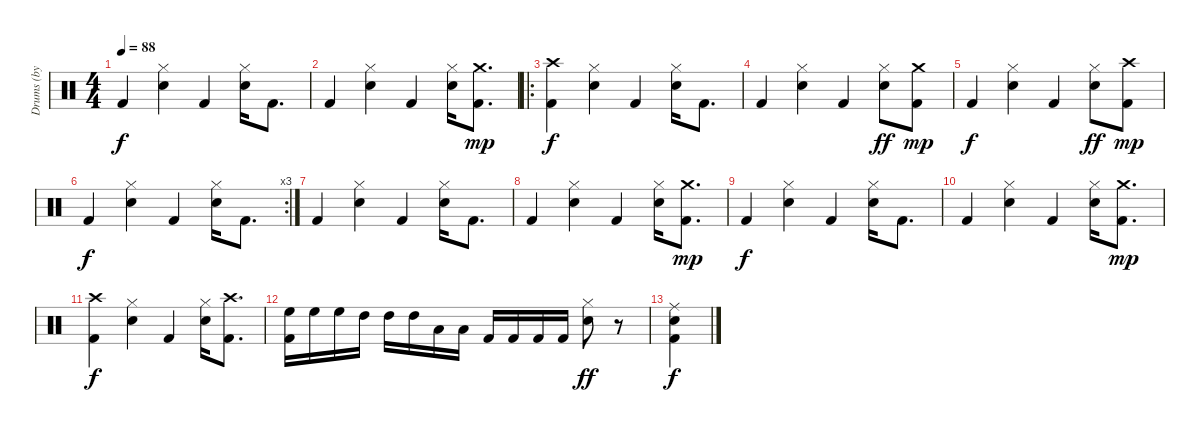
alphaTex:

\track ("Drums (by Rim)" "Drums (by ") {instrument percussion}
\staff {score}
\articulation defaults
\ts (4 4)
\tempo 88
\clef neutral
\ks c "Kick (hit) 2".4{dy f}
("Hi-Hat (closed)" "Snare (hit) 2").4 "Kick (hit) 2".4 ("Hi-Hat (closed)" "Snare (hit) 2").16 "Kick (hit) 2".8{d} |
"Kick (hit) 2".4 ("Hi-Hat (closed)" "Snare (hit) 2").4 "Kick (hit) 2".4 ("Hi-Hat (closed)" "Snare (hit) 2").16 ("Kick (hit) 2" "Crash medium (hit)").8{d dy mp} |
\ro
("Kick (hit) 2" "Crash high (hit)").4{dy f} ("Hi-Hat (closed)" "Snare (hit) 2").4 "Kick (hit) 2".4 ("Hi-Hat (closed)" "Snare (hit) 2").16 "Kick (hit) 2".8{d} |
"Kick (hit) 2".4 ("Hi-Hat (closed)" "Snare (hit) 2").4 "Kick (hit) 2".4 ("Hi-Hat (closed)" "Snare (hit) 2").8{dy ff} ("Kick (hit) 2" "Crash medium (hit)").8{dy mp} |
"Kick (hit) 2".4{dy f} ("Hi-Hat (closed)" "Snare (hit) 2").4 "Kick (hit) 2".4 ("Hi-Hat (closed)" "Snare (hit) 2").8{dy ff} ("Kick (hit) 2" "Crash high (hit)").8{dy mp} |
\rc 3 "Kick (hit) 2".4{dy f}
("Hi-Hat (closed)" "Snare (hit) 2").4 "Kick (hit) 2".4 ("Hi-Hat (closed)" "Snare (hit) 2").16 "Kick (hit) 2".8{d} |
"Kick (hit) 2".4 ("Hi-Hat (closed)" "Snare (hit) 2").4 "Kick (hit) 2".4 ("Hi-Hat (closed)" "Snare (hit) 2").16 "Kick (hit) 2".8{d} |
"Kick (hit) 2".4 ("Hi-Hat (closed)" "Snare (hit) 2").4 "Kick (hit) 2".4 ("Hi-Hat (closed)" "Snare (hit) 2").16 ("Kick (hit) 2" "Crash medium (hit)").8{d dy mp} |
"Kick (hit) 2".4{dy f} ("Hi-Hat (closed)" "Snare (hit) 2").4 "Kick (hit) 2".4 ("Hi-Hat (closed)" "Snare (hit) 2").16 "Kick (hit) 2".8{d} |
"Kick (hit) 2".4 ("Hi-Hat (closed)" "Snare (hit) 2").4 "Kick (hit) 2".4 ("Hi-Hat (closed)" "Snare (hit) 2").16 ("Kick (hit) 2" "Crash medium (hit)").8{d dy mp} |
("Kick (hit) 2" "Crash high (hit)").4{dy f} ("Hi-Hat (closed)" "Snare (hit) 2").4 "Kick (hit) 2".4 ("Hi-Hat (closed)" "Snare (hit) 2").16 ("Kick (hit) 2" "Crash high (hit)").8{d} |
("Kick (hit) 2" "High Floor Tom (hit)").16 "High Floor Tom (hit)".16 "High Floor Tom (hit)".16 "High Tom (hit)".16 "High Tom (hit)".16 "High Tom (hit)".16 "Low Tom (hit)".16 "Low Tom (hit)".16 "Kick (hit) 2".16 "Kick (hit) 2".16 "Kick (hit) 2".16 "Kick (hit) 2".16 ("Hi-Hat (closed)" "Snare (hit) 2").8{dy ff} r.8 |
("Kick (hit) 2" "Snare (hit) 2" "Ride (middle)").4{dy f}
